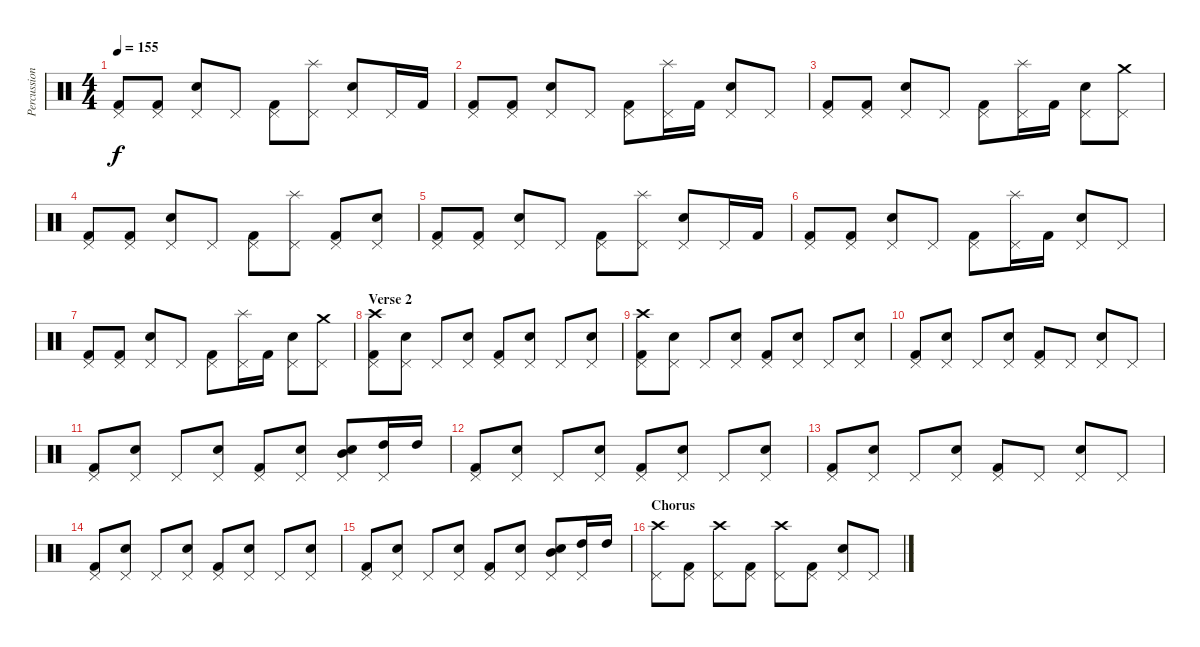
\track ("Percussion" "Percussion") {instrument percussion}
\staff {score}
\articulation defaults
\ts (4 4)
\tempo 155
\clef neutral
\ks c
("Pedal Hi-Hat (hit)" "Kick (hit) 2").8{dy f} ("Pedal Hi-Hat (hit)" "Kick (hit) 2").8 ("Pedal Hi-Hat (hit)" "Electric Snare (hit)").8 "Pedal Hi-Hat (hit)".8 ("Pedal Hi-Hat (hit)" "Kick (hit) 2").8 ("Pedal Hi-Hat (hit)" "Splash (hit)").8 ("Pedal Hi-Hat (hit)" "Electric Snare (hit)").8 "Pedal Hi-Hat (hit)".16 "Kick (hit) 2".16 |
("Pedal Hi-Hat (hit)" "Kick (hit) 2").8 ("Pedal Hi-Hat (hit)" "Kick (hit) 2").8 ("Pedal Hi-Hat (hit)" "Electric Snare (hit)").8 "Pedal Hi-Hat (hit)".8 ("Pedal Hi-Hat (hit)" "Kick (hit) 2").8 ("Pedal Hi-Hat (hit)" "Splash (hit)").16 "Kick (hit) 2".16 ("Pedal Hi-Hat (hit)" "Electric Snare (hit)").8 "Pedal Hi-Hat (hit)".8 |
("Pedal Hi-Hat (hit)" "Kick (hit) 2").8 ("Pedal Hi-Hat (hit)" "Kick (hit) 2").8 ("Pedal Hi-Hat (hit)" "Electric Snare (hit)").8 "Pedal Hi-Hat (hit)".8 ("Pedal Hi-Hat (hit)" "Kick (hit) 2").8 ("Pedal Hi-Hat (hit)" "Splash (hit)").16 "Kick (hit) 2".16 ("Pedal Hi-Hat (hit)" "Electric Snare (hit)").8 ("Pedal Hi-Hat (hit)" "Crash medium (hit)").8 |
("Pedal Hi-Hat (hit)" "Kick (hit) 2").8 ("Pedal Hi-Hat (hit)" "Kick (hit) 2").8 ("Pedal Hi-Hat (hit)" "Electric Snare (hit)").8 "Pedal Hi-Hat (hit)".8 ("Pedal Hi-Hat (hit)" "Kick (hit) 2").8 ("Pedal Hi-Hat (hit)" "Splash (hit)").8 ("Pedal Hi-Hat (hit)" "Kick (hit) 2").8 ("Pedal Hi-Hat (hit)" "Electric Snare (hit)").8 |
("Pedal Hi-Hat (hit)" "Kick (hit) 2").8 ("Pedal Hi-Hat (hit)" "Kick (hit) 2").8 ("Pedal Hi-Hat (hit)" "Electric Snare (hit)").8 "Pedal Hi-Hat (hit)".8 ("Pedal Hi-Hat (hit)" "Kick (hit) 2").8 ("Pedal Hi-Hat (hit)" "Splash (hit)").8 ("Pedal Hi-Hat (hit)" "Electric Snare (hit)").8 "Pedal Hi-Hat (hit)".16 "Kick (hit) 2".16 |
("Pedal Hi-Hat (hit)" "Kick (hit) 2").8 ("Pedal Hi-Hat (hit)" "Kick (hit) 2").8 ("Pedal Hi-Hat (hit)" "Electric Snare (hit)").8 "Pedal Hi-Hat (hit)".8 ("Pedal Hi-Hat (hit)" "Kick (hit) 2").8 ("Pedal Hi-Hat (hit)" "Splash (hit)").16 "Kick (hit) 2".16 ("Pedal Hi-Hat (hit)" "Electric Snare (hit)").8 "Pedal Hi-Hat (hit)".8 |
("Pedal Hi-Hat (hit)" "Kick (hit) 2").8 ("Pedal Hi-Hat (hit)" "Kick (hit) 2").8 ("Pedal Hi-Hat (hit)" "Electric Snare (hit)").8 "Pedal Hi-Hat (hit)".8 ("Pedal Hi-Hat (hit)" "Kick (hit) 2").8 ("Pedal Hi-Hat (hit)" "Splash (hit)").16 "Kick (hit) 2".16 ("Pedal Hi-Hat (hit)" "Electric Snare (hit)").8 ("Pedal Hi-Hat (hit)" "Crash medium (hit)").8 |
\section ("" "Verse 2")
("Pedal Hi-Hat (hit)" "Kick (hit) 2" "Crash high (hit)").8 ("Pedal Hi-Hat (hit)" "Electric Snare (hit)").8 "Pedal Hi-Hat (hit)".8 ("Pedal Hi-Hat (hit)" "Electric Snare (hit)").8 ("Pedal Hi-Hat (hit)" "Kick (hit) 2").8 ("Pedal Hi-Hat (hit)" "Electric Snare (hit)").8 "Pedal Hi-Hat (hit)".8 ("Pedal Hi-Hat (hit)" "Electric Snare (hit)").8 |
("Pedal Hi-Hat (hit)" "Kick (hit) 2" "Crash high (hit)").8 ("Pedal Hi-Hat (hit)" "Electric Snare (hit)").8 "Pedal Hi-Hat (hit)".8 ("Pedal Hi-Hat (hit)" "Electric Snare (hit)").8 ("Pedal Hi-Hat (hit)" "Kick (hit) 2").8 ("Pedal Hi-Hat (hit)" "Electric Snare (hit)").8 "Pedal Hi-Hat (hit)".8 ("Pedal Hi-Hat (hit)" "Electric Snare (hit)").8 |
("Pedal Hi-Hat (hit)" "Kick (hit) 2").8 ("Pedal Hi-Hat (hit)" "Electric Snare (hit)").8 "Pedal Hi-Hat (hit)".8 ("Pedal Hi-Hat (hit)" "Electric Snare (hit)").8 ("Pedal Hi-Hat (hit)" "Kick (hit) 2").8 "Pedal Hi-Hat (hit)".8 ("Pedal Hi-Hat (hit)" "Electric Snare (hit)").8 "Pedal Hi-Hat (hit)".8 |
("Pedal Hi-Hat (hit)" "Kick (hit) 2").8 ("Pedal Hi-Hat (hit)" "Electric Snare (hit)").8 "Pedal Hi-Hat (hit)".8 ("Pedal Hi-Hat (hit)" "Electric Snare (hit)").8 ("Pedal Hi-Hat (hit)" "Kick (hit) 2").8 ("Pedal Hi-Hat (hit)" "Electric Snare (hit)").8 ("Pedal Hi-Hat (hit)" "Electric Snare (hit)" "Mid Tom (hit)").8 ("Pedal Hi-Hat (hit)" "High Tom (hit)").16 "High Tom (hit)".16 |
("Pedal Hi-Hat (hit)" "Kick (hit) 2").8 ("Pedal Hi-Hat (hit)" "Electric Snare (hit)").8 "Pedal Hi-Hat (hit)".8 ("Pedal Hi-Hat (hit)" "Electric Snare (hit)").8 ("Pedal Hi-Hat (hit)" "Kick (hit) 2").8 ("Pedal Hi-Hat (hit)" "Electric Snare (hit)").8 "Pedal Hi-Hat (hit)".8 ("Pedal Hi-Hat (hit)" "Electric Snare (hit)").8 |
("Pedal Hi-Hat (hit)" "Kick (hit) 2").8 ("Pedal Hi-Hat (hit)" "Electric Snare (hit)").8 "Pedal Hi-Hat (hit)".8 ("Pedal Hi-Hat (hit)" "Electric Snare (hit)").8 ("Pedal Hi-Hat (hit)" "Kick (hit) 2").8 "Pedal Hi-Hat (hit)".8 ("Pedal Hi-Hat (hit)" "Electric Snare (hit)").8 "Pedal Hi-Hat (hit)".8 |
("Pedal Hi-Hat (hit)" "Kick (hit) 2").8 ("Pedal Hi-Hat (hit)" "Electric Snare (hit)").8 "Pedal Hi-Hat (hit)".8 ("Pedal Hi-Hat (hit)" "Electric Snare (hit)").8 ("Pedal Hi-Hat (hit)" "Kick (hit) 2").8 ("Pedal Hi-Hat (hit)" "Electric Snare (hit)").8 "Pedal Hi-Hat (hit)".8 ("Pedal Hi-Hat (hit)" "Electric Snare (hit)").8 |
("Pedal Hi-Hat (hit)" "Kick (hit) 2").8 ("Pedal Hi-Hat (hit)" "Electric Snare (hit)").8 "Pedal Hi-Hat (hit)".8 ("Pedal Hi-Hat (hit)" "Electric Snare (hit)").8 ("Pedal Hi-Hat (hit)" "Kick (hit) 2").8 ("Pedal Hi-Hat (hit)" "Electric Snare (hit)").8 ("Pedal Hi-Hat (hit)" "Electric Snare (hit)" "Mid Tom (hit)").8 ("Pedal Hi-Hat (hit)" "High Tom (hit)").16 "High Tom (hit)".16 |
\section ("" "Chorus")
("Pedal Hi-Hat (hit)" "Crash high (hit)").8 ("Pedal Hi-Hat (hit)" "Kick (hit) 2").8 ("Pedal Hi-Hat (hit)" "Crash high (hit)").8 ("Pedal Hi-Hat (hit)" "Kick (hit) 2").8 ("Pedal Hi-Hat (hit)" "Crash high (hit)").8 ("Pedal Hi-Hat (hit)" "Kick (hit) 2").8 ("Pedal Hi-Hat (hit)" "Electric Snare (hit)").8 "Pedal Hi-Hat (hit)".8
